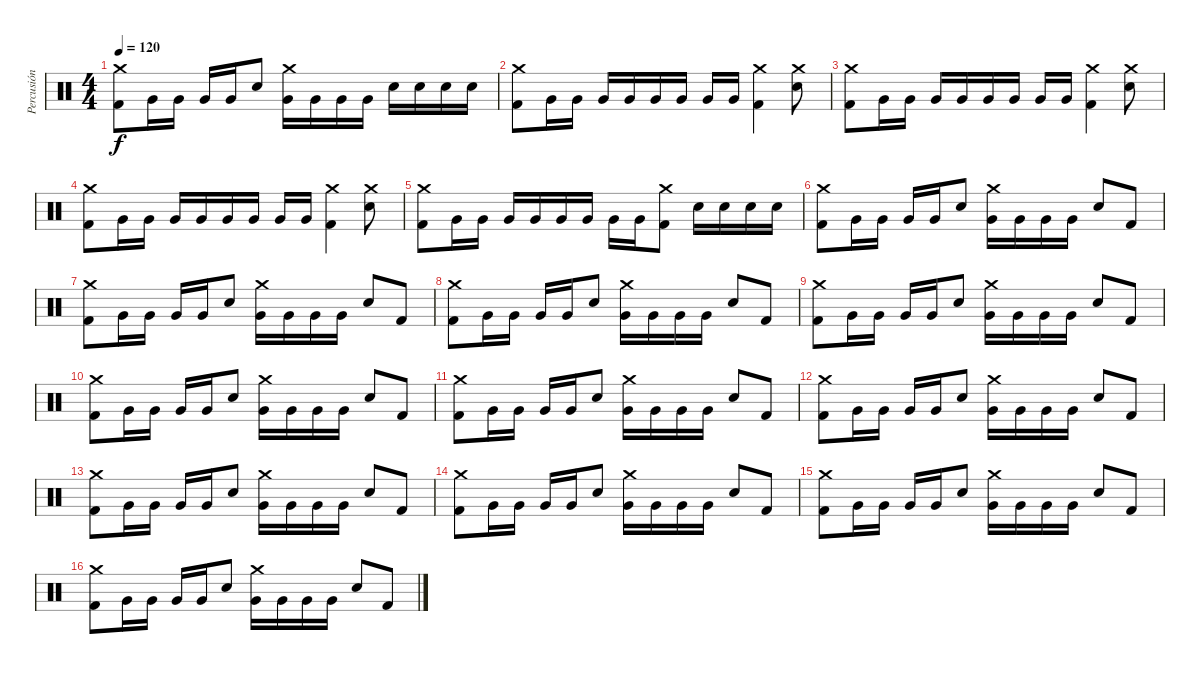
\track ("Percusión" "Percusión") {instrument percussion}
\staff {score}
\articulation defaults
\ts (4 4)
\tempo 120
\clef neutral
\ks c
("Crash medium (hit)" "Kick (hit) 2").8{dy f} "Very Low Tom (hit)".16 "Very Low Tom (hit)".16 "Very Low Tom (hit)".16 "Very Low Tom (hit)".16 "Snare (hit) 2".8 ("Crash medium (hit)" "Very Low Tom (hit)").16 "Very Low Tom (hit)".16 "Very Low Tom (hit)".16 "Very Low Tom (hit)".16 "Snare (hit) 2".16 "Snare (hit) 2".16 "Snare (hit) 2".16 "Snare (hit) 2".16 |
("Crash medium (hit)" "Kick (hit) 2").8 "Very Low Tom (hit)".16 "Very Low Tom (hit)".16 "Very Low Tom (hit)".16 "Very Low Tom (hit)".16 "Very Low Tom (hit)".16 "Very Low Tom (hit)".16 "Very Low Tom (hit)".16 "Very Low Tom (hit)".16 ("Crash medium (hit)" "Kick (hit) 2").4 ("Crash medium (hit)" "Snare (hit) 2").8 |
("Crash medium (hit)" "Kick (hit) 2").8 "Very Low Tom (hit)".16 "Very Low Tom (hit)".16 "Very Low Tom (hit)".16 "Very Low Tom (hit)".16 "Very Low Tom (hit)".16 "Very Low Tom (hit)".16 "Very Low Tom (hit)".16 "Very Low Tom (hit)".16 ("Crash medium (hit)" "Kick (hit) 2").4 ("Crash medium (hit)" "Snare (hit) 2").8 |
("Crash medium (hit)" "Kick (hit) 2").8 "Very Low Tom (hit)".16 "Very Low Tom (hit)".16 "Very Low Tom (hit)".16 "Very Low Tom (hit)".16 "Very Low Tom (hit)".16 "Very Low Tom (hit)".16 "Very Low Tom (hit)".16 "Very Low Tom (hit)".16 ("Crash medium (hit)" "Kick (hit) 2").4 ("Crash medium (hit)" "Snare (hit) 2").8 |
("Crash medium (hit)" "Kick (hit) 2").8 "Very Low Tom (hit)".16 "Very Low Tom (hit)".16 "Very Low Tom (hit)".16 "Very Low Tom (hit)".16 "Very Low Tom (hit)".16 "Very Low Tom (hit)".16 "Very Low Tom (hit)".16 "Very Low Tom (hit)".16 ("Crash medium (hit)" "Kick (hit) 2").8 "Snare (hit) 2".16 "Snare (hit) 2".16 "Snare (hit) 2".16 "Snare (hit) 2".16 |
("Crash medium (hit)" "Kick (hit) 2").8 "Very Low Tom (hit)".16 "Very Low Tom (hit)".16 "Very Low Tom (hit)".16 "Very Low Tom (hit)".16 "Snare (hit) 2".8 ("Crash medium (hit)" "Very Low Tom (hit)").16 "Very Low Tom (hit)".16 "Very Low Tom (hit)".16 "Very Low Tom (hit)".16 "Snare (hit) 2".8 "Kick (hit) 2".8 |
("Crash medium (hit)" "Kick (hit) 2").8 "Very Low Tom (hit)".16 "Very Low Tom (hit)".16 "Very Low Tom (hit)".16 "Very Low Tom (hit)".16 "Snare (hit) 2".8 ("Crash medium (hit)" "Very Low Tom (hit)").16 "Very Low Tom (hit)".16 "Very Low Tom (hit)".16 "Very Low Tom (hit)".16 "Snare (hit) 2".8 "Kick (hit) 2".8 |
("Crash medium (hit)" "Kick (hit) 2").8 "Very Low Tom (hit)".16 "Very Low Tom (hit)".16 "Very Low Tom (hit)".16 "Very Low Tom (hit)".16 "Snare (hit) 2".8 ("Crash medium (hit)" "Very Low Tom (hit)").16 "Very Low Tom (hit)".16 "Very Low Tom (hit)".16 "Very Low Tom (hit)".16 "Snare (hit) 2".8 "Kick (hit) 2".8 |
("Crash medium (hit)" "Kick (hit) 2").8 "Very Low Tom (hit)".16 "Very Low Tom (hit)".16 "Very Low Tom (hit)".16 "Very Low Tom (hit)".16 "Snare (hit) 2".8 ("Crash medium (hit)" "Very Low Tom (hit)").16 "Very Low Tom (hit)".16 "Very Low Tom (hit)".16 "Very Low Tom (hit)".16 "Snare (hit) 2".8 "Kick (hit) 2".8 |
("Crash medium (hit)" "Kick (hit) 2").8 "Very Low Tom (hit)".16 "Very Low Tom (hit)".16 "Very Low Tom (hit)".16 "Very Low Tom (hit)".16 "Snare (hit) 2".8 ("Crash medium (hit)" "Very Low Tom (hit)").16 "Very Low Tom (hit)".16 "Very Low Tom (hit)".16 "Very Low Tom (hit)".16 "Snare (hit) 2".8 "Kick (hit) 2".8 |
("Crash medium (hit)" "Kick (hit) 2").8 "Very Low Tom (hit)".16 "Very Low Tom (hit)".16 "Very Low Tom (hit)".16 "Very Low Tom (hit)".16 "Snare (hit) 2".8 ("Crash medium (hit)" "Very Low Tom (hit)").16 "Very Low Tom (hit)".16 "Very Low Tom (hit)".16 "Very Low Tom (hit)".16 "Snare (hit) 2".8 "Kick (hit) 2".8 |
("Crash medium (hit)" "Kick (hit) 2").8 "Very Low Tom (hit)".16 "Very Low Tom (hit)".16 "Very Low Tom (hit)".16 "Very Low Tom (hit)".16 "Snare (hit) 2".8 ("Crash medium (hit)" "Very Low Tom (hit)").16 "Very Low Tom (hit)".16 "Very Low Tom (hit)".16 "Very Low Tom (hit)".16 "Snare (hit) 2".8 "Kick (hit) 2".8 |
("Crash medium (hit)" "Kick (hit) 2").8 "Very Low Tom (hit)".16 "Very Low Tom (hit)".16 "Very Low Tom (hit)".16 "Very Low Tom (hit)".16 "Snare (hit) 2".8 ("Crash medium (hit)" "Very Low Tom (hit)").16 "Very Low Tom (hit)".16 "Very Low Tom (hit)".16 "Very Low Tom (hit)".16 "Snare (hit) 2".8 "Kick (hit) 2".8 |
("Crash medium (hit)" "Kick (hit) 2").8 "Very Low Tom (hit)".16 "Very Low Tom (hit)".16 "Very Low Tom (hit)".16 "Very Low Tom (hit)".16 "Snare (hit) 2".8 ("Crash medium (hit)" "Very Low Tom (hit)").16 "Very Low Tom (hit)".16 "Very Low Tom (hit)".16 "Very Low Tom (hit)".16 "Snare (hit) 2".8 "Kick (hit) 2".8 |
("Crash medium (hit)" "Kick (hit) 2").8 "Very Low Tom (hit)".16 "Very Low Tom (hit)".16 "Very Low Tom (hit)".16 "Very Low Tom (hit)".16 "Snare (hit) 2".8 ("Crash medium (hit)" "Very Low Tom (hit)").16 "Very Low Tom (hit)".16 "Very Low Tom (hit)".16 "Very Low Tom (hit)".16 "Snare (hit) 2".8 "Kick (hit) 2".8 |
("Crash medium (hit)" "Kick (hit) 2").8 "Very Low Tom (hit)".16 "Very Low Tom (hit)".16 "Very Low Tom (hit)".16 "Very Low Tom (hit)".16 "Snare (hit) 2".8 ("Crash medium (hit)" "Very Low Tom (hit)").16 "Very Low Tom (hit)".16 "Very Low Tom (hit)".16 "Very Low Tom (hit)".16 "Snare (hit) 2".8 "Kick (hit) 2".8
